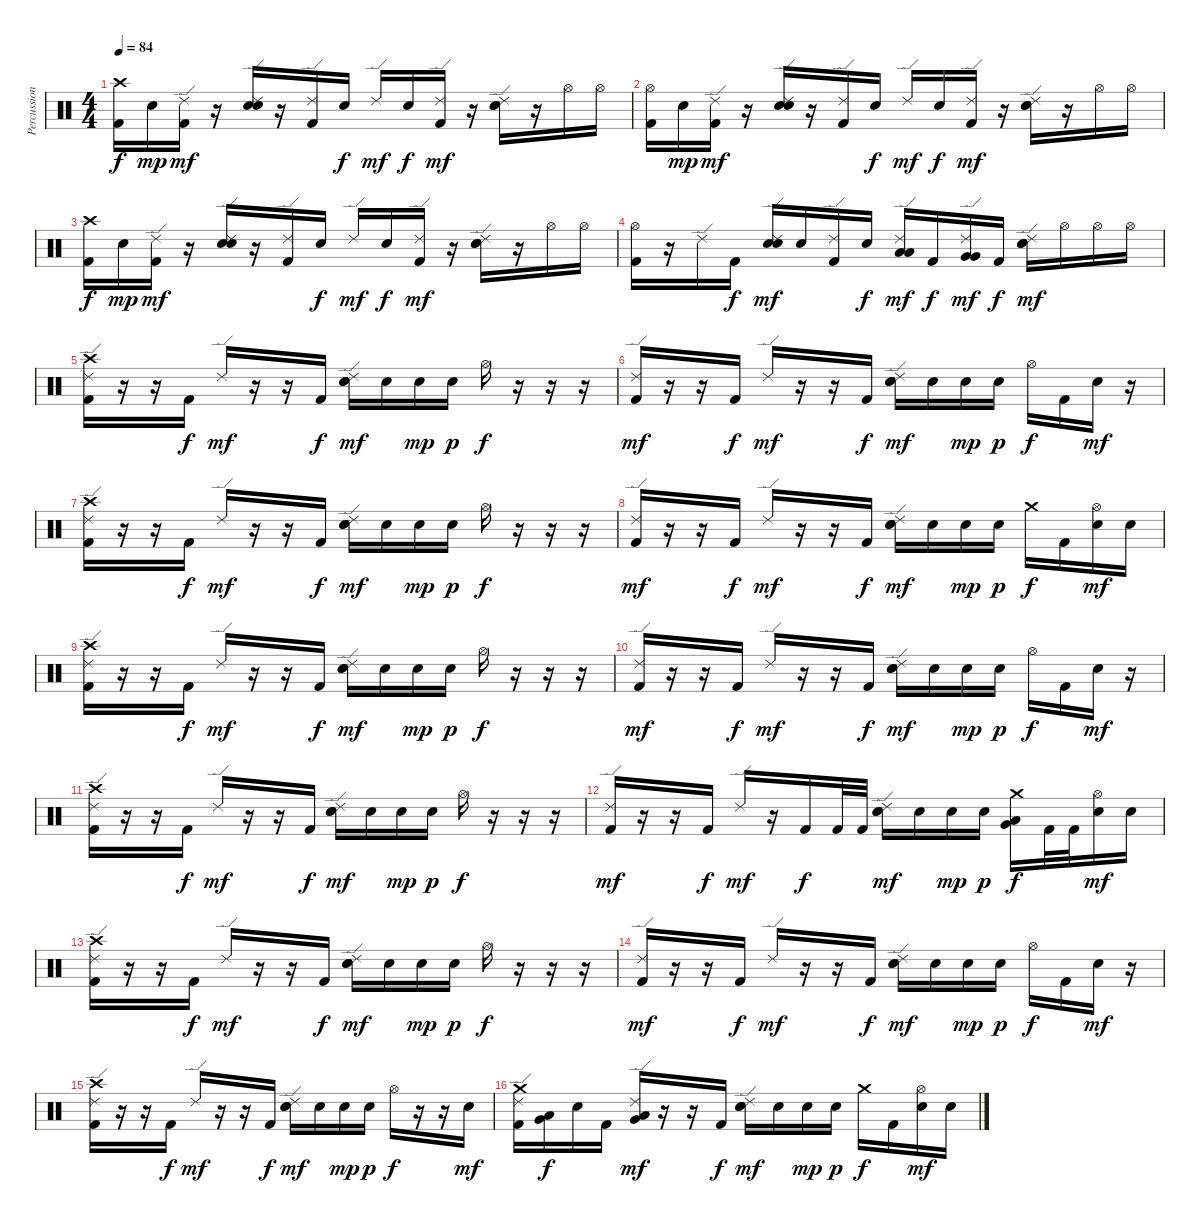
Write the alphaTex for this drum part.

\track ("Percussion" "Percussion") {instrument percussion}
\staff {score}
\articulation defaults
\ts (4 4)
\tempo 84
\clef neutral
\ks c
("Crash high (hit)" "Kick (hit) 2").16{dy f} "Electric Snare (hit)".16{dy mp} ("Ride (edge) 2" "Kick (hit) 2").16{dy mf} r.16 ("Ride (edge) 2" "Snare (hit) 2" "Electric Snare (hit)").16 r.16 ("Ride (edge) 2" "Kick (hit) 2").16 "Electric Snare (hit)".16{dy f} "Ride (edge) 2".16{dy mf} "Electric Snare (hit)".16{dy f} ("Ride (edge) 2" "Kick (hit) 2").16{dy mf} r.16 ("Ride (edge) 2" "Snare (hit) 2" "Electric Snare (hit)").16 r.16 "Hi-Hat (open)".16 "Hi-Hat (open)".16 |
("Hi-Hat (open)" "Kick (hit) 2").16 "Electric Snare (hit)".16{dy mp} ("Ride (edge) 2" "Kick (hit) 2").16{dy mf} r.16 ("Ride (edge) 2" "Snare (hit) 2" "Electric Snare (hit)").16 r.16 ("Ride (edge) 2" "Kick (hit) 2").16 "Electric Snare (hit)".16{dy f} "Ride (edge) 2".16{dy mf} "Electric Snare (hit)".16{dy f} ("Ride (edge) 2" "Kick (hit) 2").16{dy mf} r.16 ("Ride (edge) 2" "Snare (hit) 2" "Electric Snare (hit)").16 r.16 "Hi-Hat (open)".16 "Hi-Hat (open)".16 |
("Crash high (hit)" "Kick (hit) 2").16{dy f} "Electric Snare (hit)".16{dy mp} ("Ride (edge) 2" "Kick (hit) 2").16{dy mf} r.16 ("Ride (edge) 2" "Snare (hit) 2" "Electric Snare (hit)").16 r.16 ("Ride (edge) 2" "Kick (hit) 2").16 "Electric Snare (hit)".16{dy f} "Ride (edge) 2".16{dy mf} "Electric Snare (hit)".16{dy f} ("Ride (edge) 2" "Kick (hit) 2").16{dy mf} r.16 ("Ride (edge) 2" "Snare (hit) 2" "Electric Snare (hit)").16 r.16 "Hi-Hat (open)".16 "Hi-Hat (open)".16 |
("Hi-Hat (open)" "Kick (hit) 2").16 r.16 "Ride (edge) 2".16 "Kick (hit) 2".16{dy f} ("Ride (edge) 2" "Snare (hit) 2" "Electric Snare (hit)").16{dy mf} "Electric Snare (hit)".16 ("Ride (edge) 2" "Kick (hit) 2").16 "Electric Snare (hit)".16{dy f} ("Ride (edge) 2" "Low Tom (hit)" "Low Tom (hit)").16{dy mf} "Kick (hit) 2".16{dy f} ("Ride (edge) 2" "Very Low Tom (hit)" "Very Low Tom (hit)").16{dy mf} "Kick (hit) 2".16{dy f} ("Ride (edge) 2" "Snare (hit) 2" "Electric Snare (hit)").16{dy mf} "Hi-Hat (open)".16 "Hi-Hat (open)".16 "Hi-Hat (open)".16 |
("Ride (edge) 2" "Crash high (hit)" "Kick (hit) 2").16 r.16 r.16 "Kick (hit) 2".16{dy f} "Ride (edge) 2".16{dy mf} r.16 r.16 "Kick (hit) 2".16{dy f} ("Ride (edge) 2" "Snare (hit) 2" "Electric Snare (hit)").16{dy mf} "Electric Snare (hit)".16 "Electric Snare (hit)".16{dy mp} "Electric Snare (hit)".16{dy p} "Hi-Hat (open)".16{dy f} r.16 r.16 r.16 |
("Ride (edge) 2" "Kick (hit) 2").16{dy mf} r.16 r.16 "Kick (hit) 2".16{dy f} "Ride (edge) 2".16{dy mf} r.16 r.16 "Kick (hit) 2".16{dy f} ("Ride (edge) 2" "Snare (hit) 2" "Electric Snare (hit)").16{dy mf} "Electric Snare (hit)".16 "Electric Snare (hit)".16{dy mp} "Electric Snare (hit)".16{dy p} "Hi-Hat (open)".16{dy f} "Kick (hit) 2".16 "Electric Snare (hit)".16{dy mf} r.16 |
("Ride (edge) 2" "Crash high (hit)" "Kick (hit) 2").16 r.16 r.16 "Kick (hit) 2".16{dy f} "Ride (edge) 2".16{dy mf} r.16 r.16 "Kick (hit) 2".16{dy f} ("Ride (edge) 2" "Snare (hit) 2" "Electric Snare (hit)").16{dy mf} "Electric Snare (hit)".16 "Electric Snare (hit)".16{dy mp} "Electric Snare (hit)".16{dy p} "Hi-Hat (open)".16{dy f} r.16 r.16 r.16 |
("Ride (edge) 2" "Kick (hit) 2").16{dy mf} r.16 r.16 "Kick (hit) 2".16{dy f} "Ride (edge) 2".16{dy mf} r.16 r.16 "Kick (hit) 2".16{dy f} ("Ride (edge) 2" "Snare (hit) 2" "Electric Snare (hit)").16{dy mf} "Electric Snare (hit)".16 "Electric Snare (hit)".16{dy mp} "Electric Snare (hit)".16{dy p} "Crash medium (hit)".16{dy f} "Kick (hit) 2".16 ("Hi-Hat (open)" "Electric Snare (hit)").16{dy mf} "Electric Snare (hit)".16 |
("Ride (edge) 2" "Crash high (hit)" "Kick (hit) 2").16 r.16 r.16 "Kick (hit) 2".16{dy f} "Ride (edge) 2".16{dy mf} r.16 r.16 "Kick (hit) 2".16{dy f} ("Ride (edge) 2" "Snare (hit) 2" "Electric Snare (hit)").16{dy mf} "Electric Snare (hit)".16 "Electric Snare (hit)".16{dy mp} "Electric Snare (hit)".16{dy p} "Hi-Hat (open)".16{dy f} r.16 r.16 r.16 |
("Ride (edge) 2" "Kick (hit) 2").16{dy mf} r.16 r.16 "Kick (hit) 2".16{dy f} "Ride (edge) 2".16{dy mf} r.16 r.16 "Kick (hit) 2".16{dy f} ("Ride (edge) 2" "Snare (hit) 2" "Electric Snare (hit)").16{dy mf} "Electric Snare (hit)".16 "Electric Snare (hit)".16{dy mp} "Electric Snare (hit)".16{dy p} "Hi-Hat (open)".16{dy f} "Kick (hit) 2".16 "Electric Snare (hit)".16{dy mf} r.16 |
("Ride (edge) 2" "Crash high (hit)" "Kick (hit) 2").16 r.16 r.16 "Kick (hit) 2".16{dy f} "Ride (edge) 2".16{dy mf} r.16 r.16 "Kick (hit) 2".16{dy f} ("Ride (edge) 2" "Snare (hit) 2" "Electric Snare (hit)").16{dy mf} "Electric Snare (hit)".16 "Electric Snare (hit)".16{dy mp} "Electric Snare (hit)".16{dy p} "Hi-Hat (open)".16{dy f} r.16 r.16 r.16 |
("Ride (edge) 2" "Kick (hit) 2").16{dy mf} r.16 r.16 "Kick (hit) 2".16{dy f} "Ride (edge) 2".16{dy mf} r.16 "Kick (hit) 2".16{dy f} "Kick (hit) 2".32 "Kick (hit) 2".32 ("Ride (edge) 2" "Snare (hit) 2" "Electric Snare (hit)").16{dy mf} "Electric Snare (hit)".16 "Electric Snare (hit)".16{dy mp} "Electric Snare (hit)".16{dy p} ("Crash medium (hit)" "Low Tom (hit)" "Very Low Tom (hit)").16{dy f} "Kick (hit) 2".32 "Kick (hit) 2".32 ("Hi-Hat (open)" "Electric Snare (hit)").16{dy mf} "Electric Snare (hit)".16 |
("Ride (edge) 2" "Crash high (hit)" "Kick (hit) 2").16 r.16 r.16 "Kick (hit) 2".16{dy f} "Ride (edge) 2".16{dy mf} r.16 r.16 "Kick (hit) 2".16{dy f} ("Ride (edge) 2" "Snare (hit) 2" "Electric Snare (hit)").16{dy mf} "Electric Snare (hit)".16 "Electric Snare (hit)".16{dy mp} "Electric Snare (hit)".16{dy p} "Hi-Hat (open)".16{dy f} r.16 r.16 r.16 |
("Ride (edge) 2" "Kick (hit) 2").16{dy mf} r.16 r.16 "Kick (hit) 2".16{dy f} "Ride (edge) 2".16{dy mf} r.16 r.16 "Kick (hit) 2".16{dy f} ("Ride (edge) 2" "Snare (hit) 2" "Electric Snare (hit)").16{dy mf} "Electric Snare (hit)".16 "Electric Snare (hit)".16{dy mp} "Electric Snare (hit)".16{dy p} "Hi-Hat (open)".16{dy f} "Kick (hit) 2".16 "Electric Snare (hit)".16{dy mf} r.16 |
("Ride (edge) 2" "Crash high (hit)" "Kick (hit) 2").16 r.16 r.16 "Kick (hit) 2".16{dy f} "Ride (edge) 2".16{dy mf} r.16 r.16 "Kick (hit) 2".16{dy f} ("Ride (edge) 2" "Snare (hit) 2" "Electric Snare (hit)").16{dy mf} "Electric Snare (hit)".16 "Electric Snare (hit)".16{dy mp} "Electric Snare (hit)".16{dy p} "Hi-Hat (open)".16{dy f} r.16 r.16 "Electric Snare (hit)".16{dy mf} |
("Ride (edge) 2" "Crash medium (hit)" "Kick (hit) 2").16 ("Low Tom (hit)" "Very Low Tom (hit)").16{dy f} "Electric Snare (hit)".16 "Kick (hit) 2".16 ("Ride (edge) 2" "Low Tom (hit)" "Very Low Tom (hit)").16{dy mf} r.16 r.16 "Kick (hit) 2".16{dy f} ("Ride (edge) 2" "Snare (hit) 2" "Electric Snare (hit)").16{dy mf} "Electric Snare (hit)".16 "Electric Snare (hit)".16{dy mp} "Electric Snare (hit)".16{dy p} "Crash medium (hit)".16{dy f} "Kick (hit) 2".16 ("Hi-Hat (open)" "Electric Snare (hit)").16{dy mf} "Electric Snare (hit)".16
